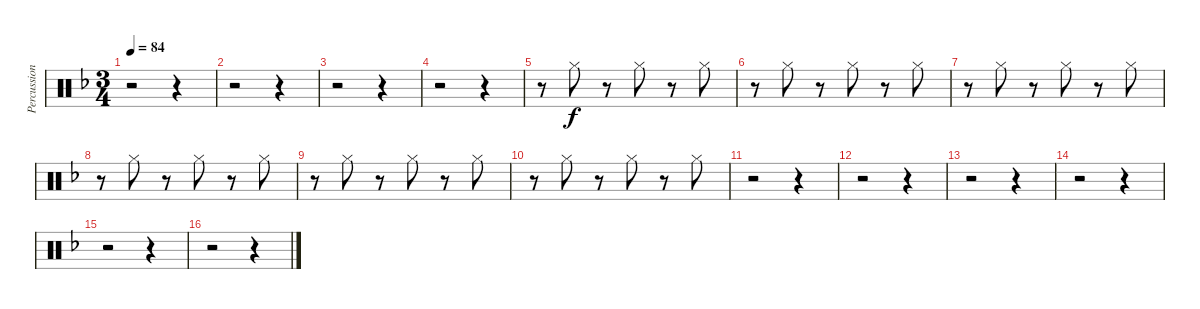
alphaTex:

\track ("Percussion" "Percussion") {instrument percussion}
\staff {score}
\articulation defaults
\ts (3 4)
\tempo 84
\clef neutral
\ks dminor
r.2{dy mp} r.4 |
r.2 r.4 |
r.2 r.4 |
r.2 r.4 |
r.8 "Hi-Hat (closed)".8{dy f} r.8 "Hi-Hat (closed)".8 r.8 "Hi-Hat (closed)".8 |
r.8 "Hi-Hat (closed)".8 r.8 "Hi-Hat (closed)".8 r.8 "Hi-Hat (closed)".8 |
r.8 "Hi-Hat (closed)".8 r.8 "Hi-Hat (closed)".8 r.8 "Hi-Hat (closed)".8 |
r.8 "Hi-Hat (closed)".8 r.8 "Hi-Hat (closed)".8 r.8 "Hi-Hat (closed)".8 |
r.8 "Hi-Hat (closed)".8 r.8 "Hi-Hat (closed)".8 r.8 "Hi-Hat (closed)".8 |
r.8 "Hi-Hat (closed)".8 r.8 "Hi-Hat (closed)".8 r.8 "Hi-Hat (closed)".8 |
r.2 r.4 |
r.2 r.4 |
r.2 r.4 |
r.2 r.4 |
r.2 r.4 |
r.2 r.4
